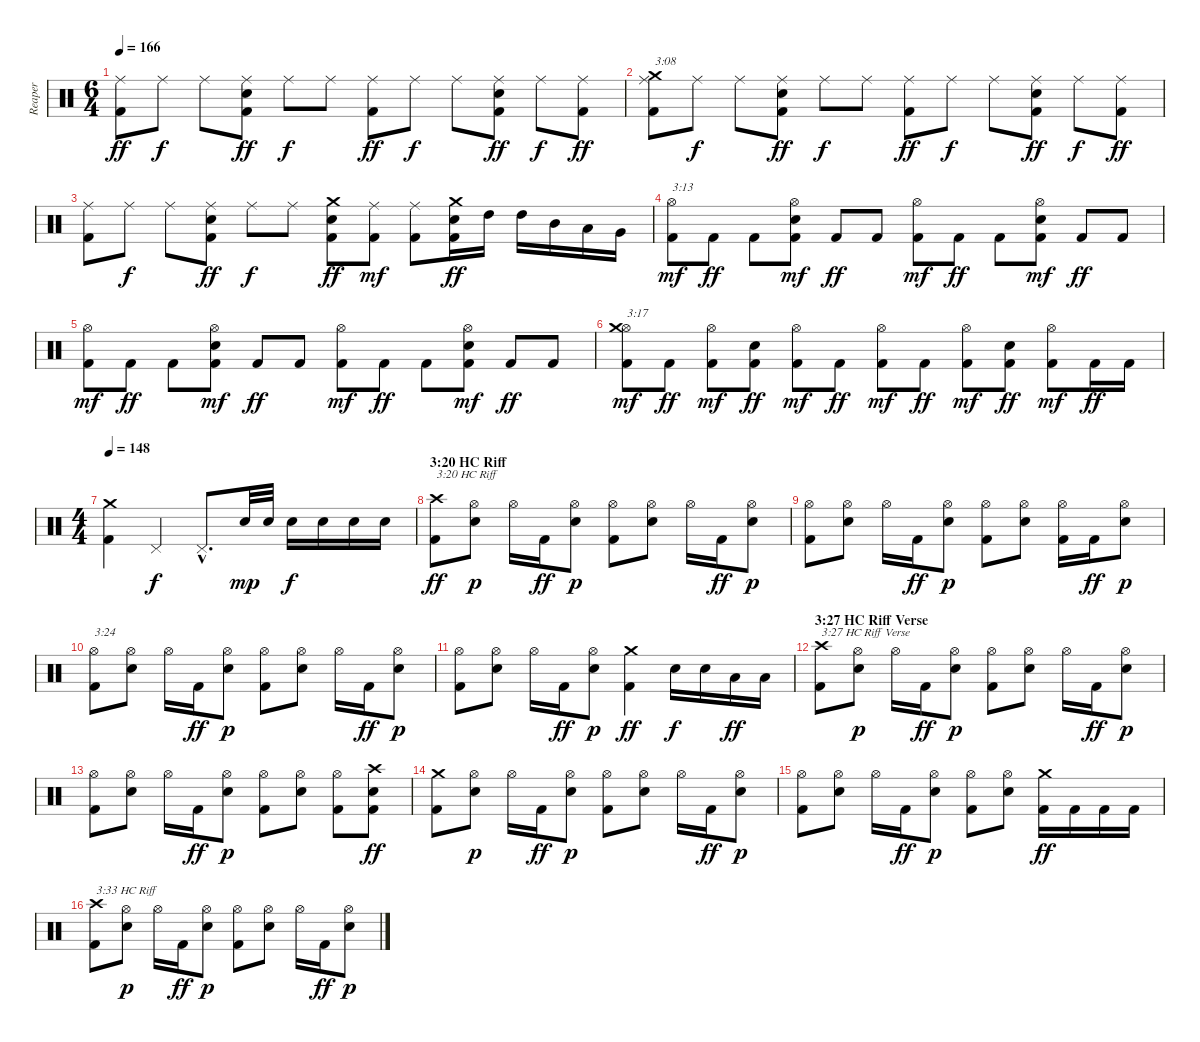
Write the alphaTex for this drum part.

\track ("Reaper" "Reaper") {instrument percussion}
\staff {score}
\articulation defaults
\ts (6 4)
\tempo 166
\clef neutral
\ks c
("Kick (hit) 2" "Ride (middle)").8{dy ff} "Ride (middle)".8{dy f} "Ride (middle)".8 ("Kick (hit) 2" "Electric Snare (hit)" "Ride (middle)").8{dy ff} "Ride (middle)".8{dy f} "Ride (middle)".8 ("Kick (hit) 2" "Ride (middle)").8{dy ff} "Ride (middle)".8{dy f} "Ride (middle)".8 ("Kick (hit) 2" "Electric Snare (hit)" "Ride (middle)").8{dy ff} "Ride (middle)".8{dy f} ("Kick (hit) 2" "Ride (middle)").8{dy ff} |
("Kick (hit) 2" "Ride (middle)" "Crash medium (hit)").8{txt "3:08"} "Ride (middle)".8{dy f} "Ride (middle)".8 ("Kick (hit) 2" "Electric Snare (hit)" "Ride (middle)").8{dy ff} "Ride (middle)".8{dy f} "Ride (middle)".8 ("Kick (hit) 2" "Ride (middle)").8{dy ff} "Ride (middle)".8{dy f} "Ride (middle)".8 ("Kick (hit) 2" "Electric Snare (hit)" "Ride (middle)").8{dy ff} "Ride (middle)".8{dy f} ("Kick (hit) 2" "Ride (middle)").8{dy ff} |
("Kick (hit) 2" "Ride (middle)").8 "Ride (middle)".8{dy f} "Ride (middle)".8 ("Kick (hit) 2" "Electric Snare (hit)" "Ride (middle)").8{dy ff} "Ride (middle)".8{dy f} "Ride (middle)".8 ("Kick (hit) 2" "Electric Snare (hit)" "Crash medium (hit)").8{dy ff} ("Kick (hit) 2" "Ride (middle)").8{dy mf} ("Kick (hit) 2" "Ride (middle)").8 ("Kick (hit) 2" "Electric Snare (hit)" "Crash medium (hit)").16{dy ff} "High Tom (hit)".16 "High Tom (hit)".16 "Mid Tom (hit)".16 "Low Tom (hit)".16 "Very Low Tom (hit)".16 |
("Kick (hit) 2" "Hi-Hat (open)").8{txt "3:13" dy mf} "Kick (hit) 2".8{dy ff} "Kick (hit) 2".8 ("Kick (hit) 2" "Electric Snare (hit)" "Hi-Hat (open)").8{dy mf} "Kick (hit) 2".8{dy ff} "Kick (hit) 2".8 ("Kick (hit) 2" "Hi-Hat (open)").8{dy mf} "Kick (hit) 2".8{dy ff} "Kick (hit) 2".8 ("Kick (hit) 2" "Electric Snare (hit)" "Hi-Hat (open)").8{dy mf} "Kick (hit) 2".8{dy ff} "Kick (hit) 2".8 |
("Kick (hit) 2" "Hi-Hat (open)").8{dy mf} "Kick (hit) 2".8{dy ff} "Kick (hit) 2".8 ("Kick (hit) 2" "Electric Snare (hit)" "Hi-Hat (open)").8{dy mf} "Kick (hit) 2".8{dy ff} "Kick (hit) 2".8 ("Kick (hit) 2" "Hi-Hat (open)").8{dy mf} "Kick (hit) 2".8{dy ff} "Kick (hit) 2".8 ("Kick (hit) 2" "Electric Snare (hit)" "Hi-Hat (open)").8{dy mf} "Kick (hit) 2".8{dy ff} "Kick (hit) 2".8 |
("Kick (hit) 2" "Hi-Hat (open)" "Crash medium (hit)").8{txt "3:17" dy mf} "Kick (hit) 2".8{dy ff} ("Kick (hit) 2" "Hi-Hat (open)").8{dy mf} ("Kick (hit) 2" "Electric Snare (hit)").8{dy ff} ("Kick (hit) 2" "Hi-Hat (open)").8{dy mf} "Kick (hit) 2".8{dy ff} ("Kick (hit) 2" "Hi-Hat (open)").8{dy mf} "Kick (hit) 2".8{dy ff} ("Kick (hit) 2" "Hi-Hat (open)").8{dy mf} ("Kick (hit) 2" "Electric Snare (hit)").8{dy ff} ("Kick (hit) 2" "Hi-Hat (open)").8{dy mf} "Kick (hit) 2".16{dy ff} "Kick (hit) 2".16 |
\ts (4 4)
\tempo 148
("Kick (hit) 2" "Crash medium (hit)").4 "Pedal Hi-Hat (hit)".4{dy f} "Pedal Hi-Hat (hit)"{hac}.8{d} "Electric Snare (hit)".32{dy mp} "Electric Snare (hit)".32 "Electric Snare (hit)".16{dy f} "Electric Snare (hit)".16 "Electric Snare (hit)".16 "Electric Snare (hit)".16 |
\section ("" "3:20 HC Riff")
("Kick (hit) 2" "Crash high (hit)").8{txt "3:20 HC Riff" dy ff} ("Electric Snare (hit)" "Hi-Hat (open)").8{dy p} "Hi-Hat (open)".16 "Kick (hit) 2".16{dy ff} ("Electric Snare (hit)" "Hi-Hat (open)").8{dy p} ("Kick (hit) 2" "Hi-Hat (open)").8 ("Electric Snare (hit)" "Hi-Hat (open)").8 "Hi-Hat (open)".16 "Kick (hit) 2".16{dy ff} ("Electric Snare (hit)" "Hi-Hat (open)").8{dy p} |
("Kick (hit) 2" "Hi-Hat (open)").8 ("Electric Snare (hit)" "Hi-Hat (open)").8 "Hi-Hat (open)".16 "Kick (hit) 2".16{dy ff} ("Electric Snare (hit)" "Hi-Hat (open)").8{dy p} ("Kick (hit) 2" "Hi-Hat (open)").8 ("Electric Snare (hit)" "Hi-Hat (open)").8 ("Kick (hit) 2" "Hi-Hat (open)").16 "Kick (hit) 2".16{dy ff} ("Electric Snare (hit)" "Hi-Hat (open)").8{dy p} |
("Kick (hit) 2" "Hi-Hat (open)").8{txt "3:24"} ("Electric Snare (hit)" "Hi-Hat (open)").8 "Hi-Hat (open)".16 "Kick (hit) 2".16{dy ff} ("Electric Snare (hit)" "Hi-Hat (open)").8{dy p} ("Kick (hit) 2" "Hi-Hat (open)").8 ("Electric Snare (hit)" "Hi-Hat (open)").8 "Hi-Hat (open)".16 "Kick (hit) 2".16{dy ff} ("Electric Snare (hit)" "Hi-Hat (open)").8{dy p} |
("Kick (hit) 2" "Hi-Hat (open)").8 ("Electric Snare (hit)" "Hi-Hat (open)").8 "Hi-Hat (open)".16 "Kick (hit) 2".16{dy ff} ("Electric Snare (hit)" "Hi-Hat (open)").8{dy p} ("Kick (hit) 2" "Crash medium (hit)").4{dy ff} "Electric Snare (hit)".16{dy f} "Electric Snare (hit)".16 "Low Tom (hit)".16{dy ff} "Low Tom (hit)".16 |
\section ("" "3:27 HC Riff Verse")
("Kick (hit) 2" "Crash high (hit)").8{txt "3:27 HC Riff Verse"} ("Electric Snare (hit)" "Hi-Hat (open)").8{dy p} "Hi-Hat (open)".16 "Kick (hit) 2".16{dy ff} ("Electric Snare (hit)" "Hi-Hat (open)").8{dy p} ("Kick (hit) 2" "Hi-Hat (open)").8 ("Electric Snare (hit)" "Hi-Hat (open)").8 "Hi-Hat (open)".16 "Kick (hit) 2".16{dy ff} ("Electric Snare (hit)" "Hi-Hat (open)").8{dy p} |
("Kick (hit) 2" "Hi-Hat (open)").8 ("Electric Snare (hit)" "Hi-Hat (open)").8 "Hi-Hat (open)".16 "Kick (hit) 2".16{dy ff} ("Electric Snare (hit)" "Hi-Hat (open)").8{dy p} ("Kick (hit) 2" "Hi-Hat (open)").8 ("Electric Snare (hit)" "Hi-Hat (open)").8 ("Kick (hit) 2" "Hi-Hat (open)").8 ("Kick (hit) 2" "Electric Snare (hit)" "Crash high (hit)").8{dy ff} |
("Kick (hit) 2" "Crash medium (hit)").8 ("Electric Snare (hit)" "Hi-Hat (open)").8{dy p} "Hi-Hat (open)".16 "Kick (hit) 2".16{dy ff} ("Electric Snare (hit)" "Hi-Hat (open)").8{dy p} ("Kick (hit) 2" "Hi-Hat (open)").8 ("Electric Snare (hit)" "Hi-Hat (open)").8 "Hi-Hat (open)".16 "Kick (hit) 2".16{dy ff} ("Electric Snare (hit)" "Hi-Hat (open)").8{dy p} |
("Kick (hit) 2" "Hi-Hat (open)").8 ("Electric Snare (hit)" "Hi-Hat (open)").8 "Hi-Hat (open)".16 "Kick (hit) 2".16{dy ff} ("Electric Snare (hit)" "Hi-Hat (open)").8{dy p} ("Kick (hit) 2" "Hi-Hat (open)").8 ("Electric Snare (hit)" "Hi-Hat (open)").8 ("Kick (hit) 2" "Crash medium (hit)").16{dy ff} "Kick (hit) 2".16 "Kick (hit) 2".16 "Kick (hit) 2".16 |
("Kick (hit) 2" "Crash high (hit)").8{txt "3:33 HC Riff"} ("Electric Snare (hit)" "Hi-Hat (open)").8{dy p} "Hi-Hat (open)".16 "Kick (hit) 2".16{dy ff} ("Electric Snare (hit)" "Hi-Hat (open)").8{dy p} ("Kick (hit) 2" "Hi-Hat (open)").8 ("Electric Snare (hit)" "Hi-Hat (open)").8 "Hi-Hat (open)".16 "Kick (hit) 2".16{dy ff} ("Electric Snare (hit)" "Hi-Hat (open)").8{dy p}
